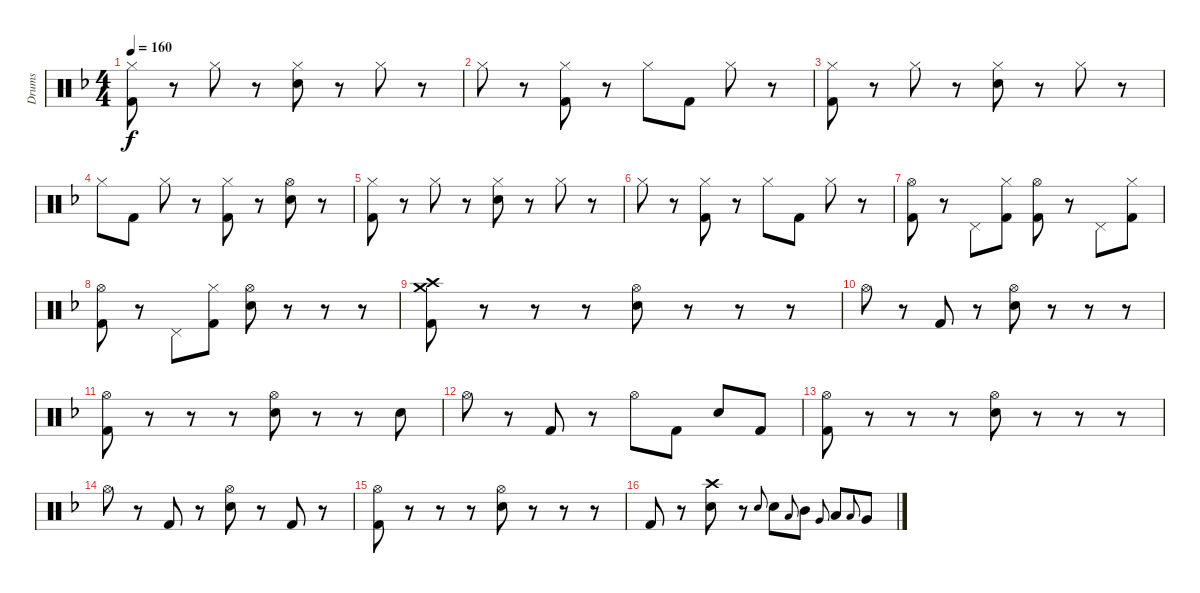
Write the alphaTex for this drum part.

\track ("Drums" "Drums") {instrument percussion}
\staff {score}
\articulation defaults
\ts (4 4)
\tempo 160
\clef neutral
\ks dminor
("Hi-Hat (closed)" "Kick (hit) 2").8{dy f} r.8 "Hi-Hat (closed)".8 r.8 ("Hi-Hat (closed)" "Electric Snare (hit)").8 r.8 "Hi-Hat (closed)".8 r.8 |
"Hi-Hat (closed)".8 r.8 ("Hi-Hat (closed)" "Kick (hit) 2").8 r.8 "Hi-Hat (closed)".8 "Kick (hit) 2".8 "Hi-Hat (closed)".8 r.8 |
("Hi-Hat (closed)" "Kick (hit) 2").8 r.8 "Hi-Hat (closed)".8 r.8 ("Hi-Hat (closed)" "Electric Snare (hit)").8 r.8 "Hi-Hat (closed)".8 r.8 |
"Hi-Hat (closed)".8 "Kick (hit) 2".8 "Hi-Hat (closed)".8 r.8 ("Hi-Hat (closed)" "Kick (hit) 2").8 r.8 ("Hi-Hat (open)" "Electric Snare (hit)").8 r.8 |
("Hi-Hat (closed)" "Kick (hit) 2").8 r.8 "Hi-Hat (closed)".8 r.8 ("Hi-Hat (closed)" "Electric Snare (hit)").8 r.8 "Hi-Hat (closed)".8 r.8 |
"Hi-Hat (closed)".8 r.8 ("Hi-Hat (closed)" "Kick (hit) 2").8 r.8 "Hi-Hat (closed)".8 "Kick (hit) 2".8 "Hi-Hat (closed)".8 r.8 |
("Hi-Hat (open)" "Kick (hit) 2").8 r.8 "Pedal Hi-Hat (hit)".8 ("Hi-Hat (closed)" "Kick (hit) 2").8 ("Hi-Hat (open)" "Kick (hit) 2").8 r.8 "Pedal Hi-Hat (hit)".8 ("Hi-Hat (closed)" "Kick (hit) 2").8 |
("Hi-Hat (open)" "Kick (hit) 2").8 r.8 "Pedal Hi-Hat (hit)".8 ("Hi-Hat (closed)" "Kick (hit) 2").8 ("Hi-Hat (open)" "Electric Snare (hit)").8 r.8 r.8 r.8 |
("Crash high (hit)" "Crash medium (hit)" "Kick (hit) 2").8 r.8 r.8 r.8 ("Hi-Hat (open)" "Electric Snare (hit)").8 r.8 r.8 r.8 |
"Hi-Hat (open)".8 r.8 "Kick (hit) 2".8 r.8 ("Hi-Hat (open)" "Electric Snare (hit)").8 r.8 r.8 r.8 |
("Hi-Hat (open)" "Kick (hit) 2").8 r.8 r.8 r.8 ("Hi-Hat (open)" "Electric Snare (hit)").8 r.8 r.8 "Electric Snare (hit)".8 |
"Hi-Hat (open)".8 r.8 "Kick (hit) 2".8 r.8 "Hi-Hat (open)".8 "Kick (hit) 2".8 "Electric Snare (hit)".8 "Kick (hit) 2".8 |
("Hi-Hat (open)" "Kick (hit) 2").8 r.8 r.8 r.8 ("Hi-Hat (open)" "Electric Snare (hit)").8 r.8 r.8 r.8 |
"Hi-Hat (open)".8 r.8 "Kick (hit) 2".8 r.8 ("Hi-Hat (open)" "Electric Snare (hit)").8 r.8 "Kick (hit) 2".8 r.8 |
("Hi-Hat (open)" "Kick (hit) 2").8 r.8 r.8 r.8 ("Hi-Hat (open)" "Electric Snare (hit)").8 r.8 r.8 r.8 |
"Kick (hit) 2".8 r.8 ("Crash high (hit)" "Electric Snare (hit)").8 r.8 "Electric Snare (hit)".8{gr onbeat} "Electric Snare (hit)".8 "Low Tom (hit)".8{gr onbeat} "Mid Tom (hit)".8 "Very Low Tom (hit)".8{gr onbeat} "Low Tom (hit)".8 "Low Floor Tom (hit)".8{gr onbeat} "Very Low Tom (hit)".8
